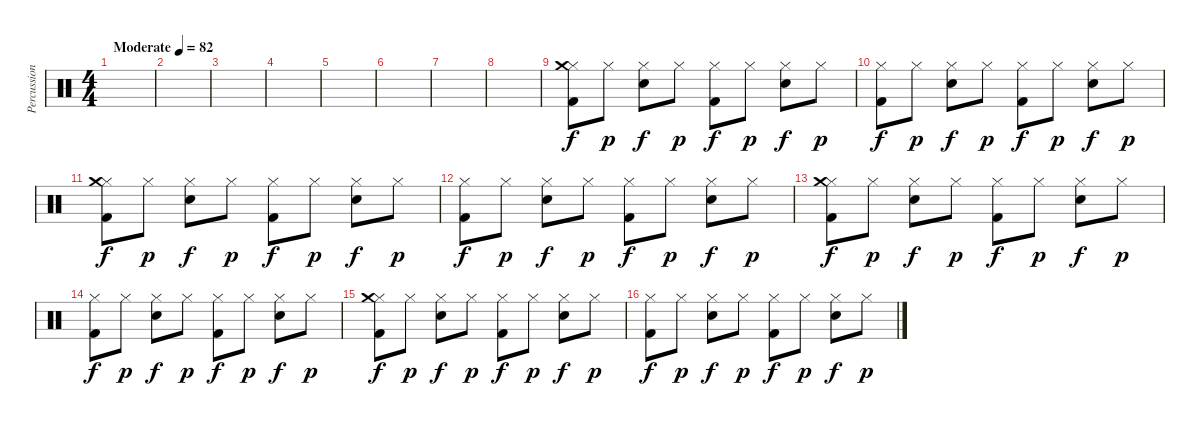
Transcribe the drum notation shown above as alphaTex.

\track ("Percussion" "Percussion") {instrument percussion}
\staff {score}
\articulation defaults
\ts (4 4)
\tempo (82 "Moderate")
\clef neutral
\ks c
|
|
|
|
|
|
|
|
("Hi-Hat (closed)" "Crash medium (hit)" "Kick (hit) 2").8 "Hi-Hat (closed)".8{dy p} ("Hi-Hat (closed)" "Electric Snare (hit)").8{dy f} "Hi-Hat (closed)".8{dy p} ("Hi-Hat (closed)" "Kick (hit) 2").8{dy f} "Hi-Hat (closed)".8{dy p} ("Hi-Hat (closed)" "Electric Snare (hit)").8{dy f} "Hi-Hat (closed)".8{dy p} |
("Hi-Hat (closed)" "Kick (hit) 2").8{dy f} "Hi-Hat (closed)".8{dy p} ("Hi-Hat (closed)" "Electric Snare (hit)").8{dy f} "Hi-Hat (closed)".8{dy p} ("Hi-Hat (closed)" "Kick (hit) 2").8{dy f} "Hi-Hat (closed)".8{dy p} ("Hi-Hat (closed)" "Electric Snare (hit)").8{dy f} "Hi-Hat (closed)".8{dy p} |
("Hi-Hat (closed)" "Crash medium (hit)" "Kick (hit) 2").8{dy f} "Hi-Hat (closed)".8{dy p} ("Hi-Hat (closed)" "Electric Snare (hit)").8{dy f} "Hi-Hat (closed)".8{dy p} ("Hi-Hat (closed)" "Kick (hit) 2").8{dy f} "Hi-Hat (closed)".8{dy p} ("Hi-Hat (closed)" "Electric Snare (hit)").8{dy f} "Hi-Hat (closed)".8{dy p} |
("Hi-Hat (closed)" "Kick (hit) 2").8{dy f} "Hi-Hat (closed)".8{dy p} ("Hi-Hat (closed)" "Electric Snare (hit)").8{dy f} "Hi-Hat (closed)".8{dy p} ("Hi-Hat (closed)" "Kick (hit) 2").8{dy f} "Hi-Hat (closed)".8{dy p} ("Hi-Hat (closed)" "Electric Snare (hit)").8{dy f} "Hi-Hat (closed)".8{dy p} |
("Hi-Hat (closed)" "Crash medium (hit)" "Kick (hit) 2").8{dy f} "Hi-Hat (closed)".8{dy p} ("Hi-Hat (closed)" "Electric Snare (hit)").8{dy f} "Hi-Hat (closed)".8{dy p} ("Hi-Hat (closed)" "Kick (hit) 2").8{dy f} "Hi-Hat (closed)".8{dy p} ("Hi-Hat (closed)" "Electric Snare (hit)").8{dy f} "Hi-Hat (closed)".8{dy p} |
("Hi-Hat (closed)" "Kick (hit) 2").8{dy f} "Hi-Hat (closed)".8{dy p} ("Hi-Hat (closed)" "Electric Snare (hit)").8{dy f} "Hi-Hat (closed)".8{dy p} ("Hi-Hat (closed)" "Kick (hit) 2").8{dy f} "Hi-Hat (closed)".8{dy p} ("Hi-Hat (closed)" "Electric Snare (hit)").8{dy f} "Hi-Hat (closed)".8{dy p} |
("Hi-Hat (closed)" "Crash medium (hit)" "Kick (hit) 2").8{dy f} "Hi-Hat (closed)".8{dy p} ("Hi-Hat (closed)" "Electric Snare (hit)").8{dy f} "Hi-Hat (closed)".8{dy p} ("Hi-Hat (closed)" "Kick (hit) 2").8{dy f} "Hi-Hat (closed)".8{dy p} ("Hi-Hat (closed)" "Electric Snare (hit)").8{dy f} "Hi-Hat (closed)".8{dy p} |
("Hi-Hat (closed)" "Kick (hit) 2").8{dy f} "Hi-Hat (closed)".8{dy p} ("Hi-Hat (closed)" "Electric Snare (hit)").8{dy f} "Hi-Hat (closed)".8{dy p} ("Hi-Hat (closed)" "Kick (hit) 2").8{dy f} "Hi-Hat (closed)".8{dy p} ("Hi-Hat (closed)" "Electric Snare (hit)").8{dy f} "Hi-Hat (closed)".8{dy p}
